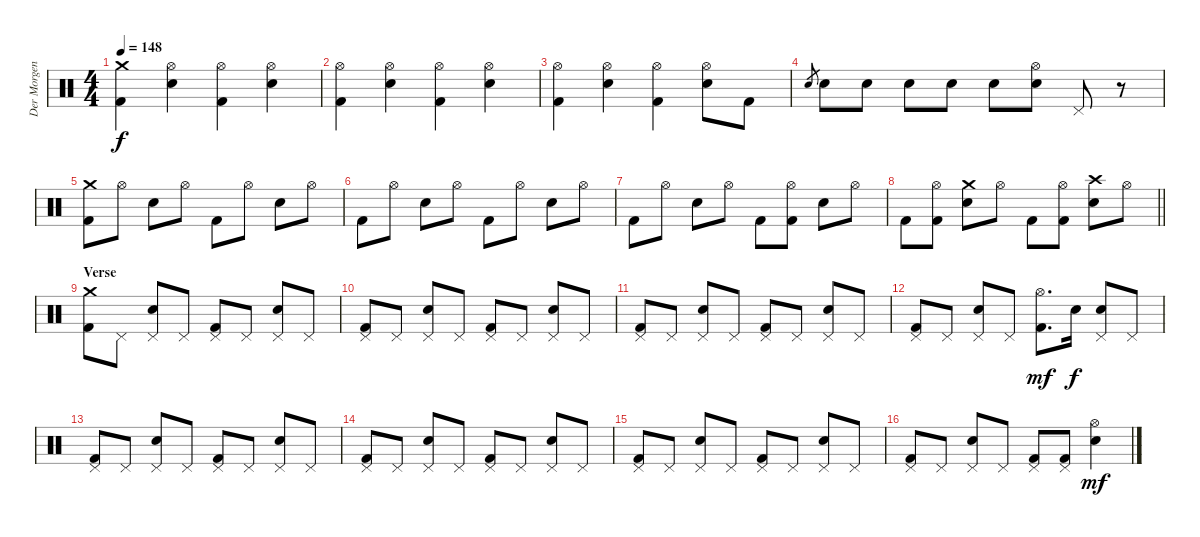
\track ("Der Morgenstern" "Der Morgen") {instrument percussion}
\staff {score}
\articulation defaults
\ts (4 4)
\tempo 148
\clef neutral
\ks c
("Crash medium (hit)" "Kick (hit) 2").4{dy f} ("Hi-Hat (open)" "Electric Snare (hit)").4 ("Hi-Hat (open)" "Kick (hit) 2").4 ("Hi-Hat (open)" "Electric Snare (hit)").4 |
("Hi-Hat (open)" "Kick (hit) 2").4 ("Hi-Hat (open)" "Electric Snare (hit)").4 ("Hi-Hat (open)" "Kick (hit) 2").4 ("Hi-Hat (open)" "Electric Snare (hit)").4 |
("Hi-Hat (open)" "Kick (hit) 2").4 ("Hi-Hat (open)" "Electric Snare (hit)").4 ("Hi-Hat (open)" "Kick (hit) 2").4 ("Hi-Hat (open)" "Electric Snare (hit)").8 "Kick (hit) 2".8 |
"Electric Snare (hit)".8{gr} "Electric Snare (hit)".8 "Electric Snare (hit)".8 "Electric Snare (hit)".8 "Electric Snare (hit)".8 "Electric Snare (hit)".8 ("Hi-Hat (open)" "Electric Snare (hit)").8 "Pedal Hi-Hat (hit)".8 r.8 |
("Crash medium (hit)" "Kick (hit) 2").8 "Hi-Hat (open)".8 "Electric Snare (hit)".8 "Hi-Hat (open)".8 "Kick (hit) 2".8 "Hi-Hat (open)".8 "Electric Snare (hit)".8 "Hi-Hat (open)".8 |
"Kick (hit) 2".8 "Hi-Hat (open)".8 "Electric Snare (hit)".8 "Hi-Hat (open)".8 "Kick (hit) 2".8 "Hi-Hat (open)".8 "Electric Snare (hit)".8 "Hi-Hat (open)".8 |
"Kick (hit) 2".8 "Hi-Hat (open)".8 "Electric Snare (hit)".8 "Hi-Hat (open)".8 "Kick (hit) 2".8 ("Hi-Hat (open)" "Kick (hit) 2").8 "Electric Snare (hit)".8 "Hi-Hat (open)".8 |
\barLineRight lightlight "Kick (hit) 2".8
("Hi-Hat (open)" "Kick (hit) 2").8 ("Crash medium (hit)" "Electric Snare (hit)").8 "Hi-Hat (open)".8 "Kick (hit) 2".8 ("Hi-Hat (open)" "Kick (hit) 2").8 ("Crash high (hit)" "Electric Snare (hit)").8 "Hi-Hat (open)".8 |
\section ("" "Verse")
("Crash medium (hit)" "Kick (hit) 2").8 "Pedal Hi-Hat (hit)".8 ("Pedal Hi-Hat (hit)" "Electric Snare (hit)").8 "Pedal Hi-Hat (hit)".8 ("Pedal Hi-Hat (hit)" "Kick (hit) 2").8 "Pedal Hi-Hat (hit)".8 ("Pedal Hi-Hat (hit)" "Electric Snare (hit)").8 "Pedal Hi-Hat (hit)".8 |
("Pedal Hi-Hat (hit)" "Kick (hit) 2").8 "Pedal Hi-Hat (hit)".8 ("Pedal Hi-Hat (hit)" "Electric Snare (hit)").8 "Pedal Hi-Hat (hit)".8 ("Pedal Hi-Hat (hit)" "Kick (hit) 2").8 "Pedal Hi-Hat (hit)".8 ("Pedal Hi-Hat (hit)" "Electric Snare (hit)").8 "Pedal Hi-Hat (hit)".8 |
("Pedal Hi-Hat (hit)" "Kick (hit) 2").8 "Pedal Hi-Hat (hit)".8 ("Pedal Hi-Hat (hit)" "Electric Snare (hit)").8 "Pedal Hi-Hat (hit)".8 ("Pedal Hi-Hat (hit)" "Kick (hit) 2").8 "Pedal Hi-Hat (hit)".8 ("Pedal Hi-Hat (hit)" "Electric Snare (hit)").8 "Pedal Hi-Hat (hit)".8 |
("Pedal Hi-Hat (hit)" "Kick (hit) 2").8 "Pedal Hi-Hat (hit)".8 ("Pedal Hi-Hat (hit)" "Electric Snare (hit)").8 "Pedal Hi-Hat (hit)".8 ("Hi-Hat (open)" "Kick (hit) 2").8{d dy mf} "Electric Snare (hit)".16{dy f} ("Pedal Hi-Hat (hit)" "Electric Snare (hit)").8 "Pedal Hi-Hat (hit)".8 |
("Pedal Hi-Hat (hit)" "Kick (hit) 2").8 "Pedal Hi-Hat (hit)".8 ("Pedal Hi-Hat (hit)" "Electric Snare (hit)").8 "Pedal Hi-Hat (hit)".8 ("Pedal Hi-Hat (hit)" "Kick (hit) 2").8 "Pedal Hi-Hat (hit)".8 ("Pedal Hi-Hat (hit)" "Electric Snare (hit)").8 "Pedal Hi-Hat (hit)".8 |
("Pedal Hi-Hat (hit)" "Kick (hit) 2").8 "Pedal Hi-Hat (hit)".8 ("Pedal Hi-Hat (hit)" "Electric Snare (hit)").8 "Pedal Hi-Hat (hit)".8 ("Pedal Hi-Hat (hit)" "Kick (hit) 2").8 "Pedal Hi-Hat (hit)".8 ("Pedal Hi-Hat (hit)" "Electric Snare (hit)").8 "Pedal Hi-Hat (hit)".8 |
("Pedal Hi-Hat (hit)" "Kick (hit) 2").8 "Pedal Hi-Hat (hit)".8 ("Pedal Hi-Hat (hit)" "Electric Snare (hit)").8 "Pedal Hi-Hat (hit)".8 ("Pedal Hi-Hat (hit)" "Kick (hit) 2").8 "Pedal Hi-Hat (hit)".8 ("Pedal Hi-Hat (hit)" "Electric Snare (hit)").8 "Pedal Hi-Hat (hit)".8 |
("Pedal Hi-Hat (hit)" "Kick (hit) 2").8 "Pedal Hi-Hat (hit)".8 ("Pedal Hi-Hat (hit)" "Electric Snare (hit)").8 "Pedal Hi-Hat (hit)".8 ("Pedal Hi-Hat (hit)" "Kick (hit) 2").8 ("Pedal Hi-Hat (hit)" "Kick (hit) 2").8 ("Hi-Hat (open)" "Electric Snare (hit)").4{dy mf}
